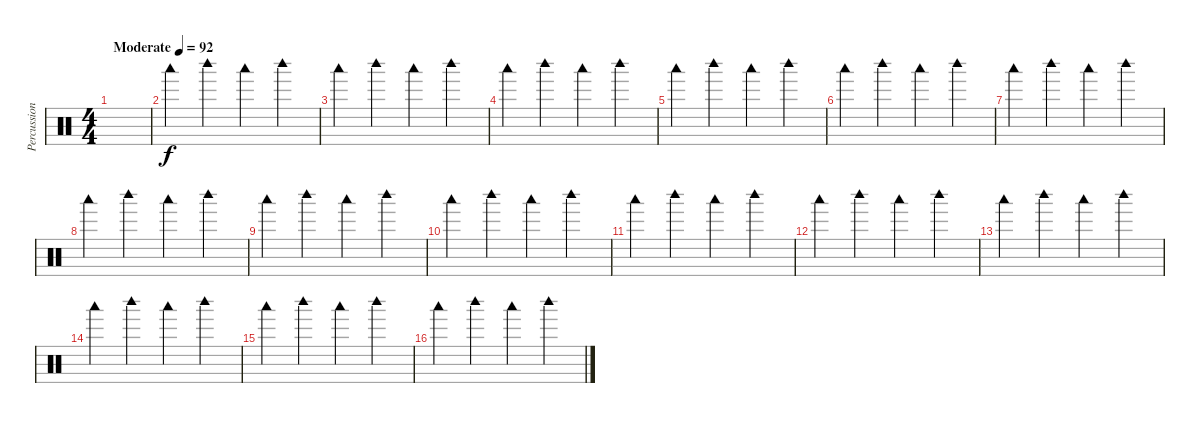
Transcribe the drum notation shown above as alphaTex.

\track ("Percussioni" "Percussion") {instrument percussion}
\staff {score}
\articulation defaults
\ts (4 4)
\tempo (92 "Moderate")
\clef neutral
\ks c
|
"Woodblock low (hit)".4 "Woodblock high (hit)".4 "Woodblock low (hit)".4 "Woodblock high (hit)".4 |
"Woodblock low (hit)".4 "Woodblock high (hit)".4 "Woodblock low (hit)".4 "Woodblock high (hit)".4 |
"Woodblock low (hit)".4 "Woodblock high (hit)".4 "Woodblock low (hit)".4 "Woodblock high (hit)".4 |
"Woodblock low (hit)".4 "Woodblock high (hit)".4 "Woodblock low (hit)".4 "Woodblock high (hit)".4 |
"Woodblock low (hit)".4 "Woodblock high (hit)".4 "Woodblock low (hit)".4 "Woodblock high (hit)".4 |
"Woodblock low (hit)".4 "Woodblock high (hit)".4 "Woodblock low (hit)".4 "Woodblock high (hit)".4 |
"Woodblock low (hit)".4 "Woodblock high (hit)".4 "Woodblock low (hit)".4 "Woodblock high (hit)".4 |
"Woodblock low (hit)".4 "Woodblock high (hit)".4 "Woodblock low (hit)".4 "Woodblock high (hit)".4 |
"Woodblock low (hit)".4 "Woodblock high (hit)".4 "Woodblock low (hit)".4 "Woodblock high (hit)".4 |
"Woodblock low (hit)".4 "Woodblock high (hit)".4 "Woodblock low (hit)".4 "Woodblock high (hit)".4 |
"Woodblock low (hit)".4 "Woodblock high (hit)".4 "Woodblock low (hit)".4 "Woodblock high (hit)".4 |
"Woodblock low (hit)".4 "Woodblock high (hit)".4 "Woodblock low (hit)".4 "Woodblock high (hit)".4 |
"Woodblock low (hit)".4 "Woodblock high (hit)".4 "Woodblock low (hit)".4 "Woodblock high (hit)".4 |
"Woodblock low (hit)".4 "Woodblock high (hit)".4 "Woodblock low (hit)".4 "Woodblock high (hit)".4 |
"Woodblock low (hit)".4 "Woodblock high (hit)".4 "Woodblock low (hit)".4 "Woodblock high (hit)".4
